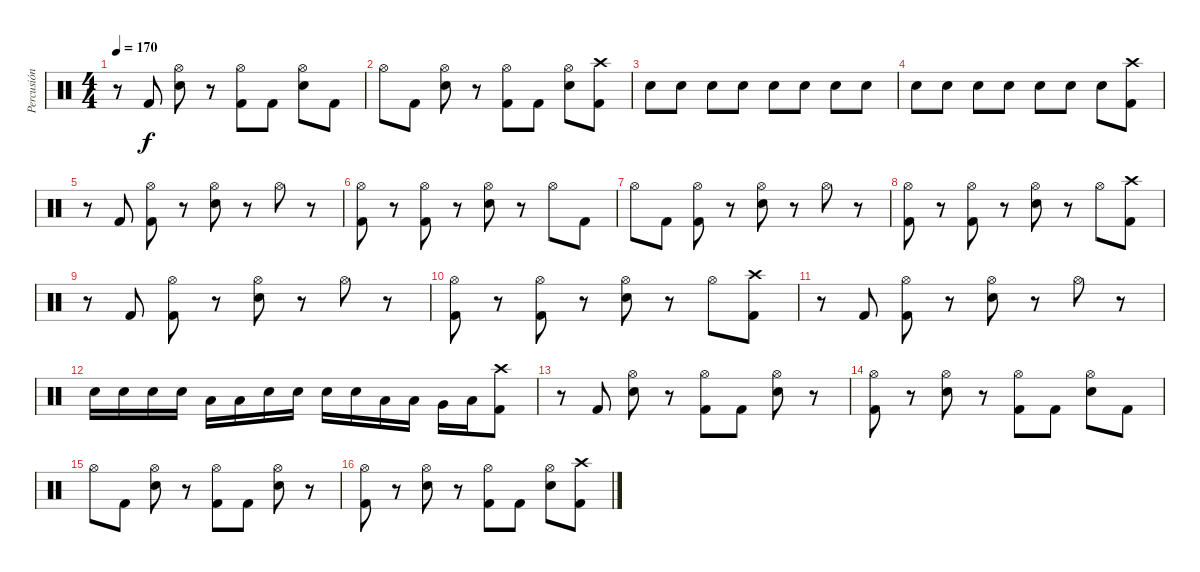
\track ("Percusión" "Percusión") {instrument percussion}
\staff {score}
\articulation defaults
\ts (4 4)
\tempo 170
\clef neutral
\ks c
r.8{dy f} "Kick (hit) 2".8 ("Snare (hit) 2" "Hi-Hat (open)").8 r.8 ("Kick (hit) 2" "Hi-Hat (open)").8 "Kick (hit) 2".8 ("Snare (hit) 2" "Hi-Hat (open)").8 "Kick (hit) 2".8 |
"Hi-Hat (open)".8 "Kick (hit) 2".8 ("Snare (hit) 2" "Hi-Hat (open)").8 r.8 ("Kick (hit) 2" "Hi-Hat (open)").8 "Kick (hit) 2".8 ("Snare (hit) 2" "Hi-Hat (open)").8 ("Kick (hit) 2" "Crash high (hit)").8 |
"Snare (hit) 2".8{volume 0} "Snare (hit) 2".8{volume 16} "Snare (hit) 2".8 "Snare (hit) 2".8 "Snare (hit) 2".8 "Snare (hit) 2".8 "Snare (hit) 2".8 "Snare (hit) 2".8 |
"Snare (hit) 2".8 "Snare (hit) 2".8 "Snare (hit) 2".8 "Snare (hit) 2".8 "Snare (hit) 2".8 "Snare (hit) 2".8 "Snare (hit) 2".8 ("Kick (hit) 2" "Crash high (hit)").8 |
r.8 "Kick (hit) 2".8 ("Kick (hit) 2" "Hi-Hat (open)").8 r.8 ("Snare (hit) 2" "Hi-Hat (open)").8 r.8 "Hi-Hat (open)".8 r.8 |
("Kick (hit) 2" "Hi-Hat (open)").8 r.8 ("Kick (hit) 2" "Hi-Hat (open)").8 r.8 ("Snare (hit) 2" "Hi-Hat (open)").8 r.8 "Hi-Hat (open)".8 "Kick (hit) 2".8 |
"Hi-Hat (open)".8 "Kick (hit) 2".8 ("Kick (hit) 2" "Hi-Hat (open)").8 r.8 ("Snare (hit) 2" "Hi-Hat (open)").8 r.8 "Hi-Hat (open)".8 r.8 |
("Kick (hit) 2" "Hi-Hat (open)").8 r.8 ("Kick (hit) 2" "Hi-Hat (open)").8 r.8 ("Snare (hit) 2" "Hi-Hat (open)").8 r.8 "Hi-Hat (open)".8 ("Kick (hit) 2" "Crash high (hit)").8 |
r.8 "Kick (hit) 2".8 ("Kick (hit) 2" "Hi-Hat (open)").8 r.8 ("Snare (hit) 2" "Hi-Hat (open)").8 r.8 "Hi-Hat (open)".8 r.8 |
("Kick (hit) 2" "Hi-Hat (open)").8 r.8 ("Kick (hit) 2" "Hi-Hat (open)").8 r.8 ("Snare (hit) 2" "Hi-Hat (open)").8 r.8 "Hi-Hat (open)".8 ("Kick (hit) 2" "Crash high (hit)").8 |
r.8 "Kick (hit) 2".8 ("Kick (hit) 2" "Hi-Hat (open)").8 r.8 ("Snare (hit) 2" "Hi-Hat (open)").8 r.8 "Hi-Hat (open)".8 r.8 |
"Snare (hit) 2".16 "Snare (hit) 2".16 "Snare (hit) 2".16 "Snare (hit) 2".16 "Low Tom (hit)".16 "Low Tom (hit)".16 "Snare (hit) 2".16 "Snare (hit) 2".16 "Snare (hit) 2".16 "Snare (hit) 2".16 "Low Tom (hit)".16 "Low Tom (hit)".16 "Very Low Tom (hit)".16 "Low Floor Tom (hit)".16 ("Kick (hit) 2" "Crash high (hit)").8 |
r.8 "Kick (hit) 2".8 ("Snare (hit) 2" "Hi-Hat (open)").8 r.8 ("Kick (hit) 2" "Hi-Hat (open)").8 "Kick (hit) 2".8 ("Snare (hit) 2" "Hi-Hat (open)").8 r.8 |
("Kick (hit) 2" "Hi-Hat (open)").8 r.8 ("Snare (hit) 2" "Hi-Hat (open)").8 r.8 ("Kick (hit) 2" "Hi-Hat (open)").8 "Kick (hit) 2".8 ("Snare (hit) 2" "Hi-Hat (open)").8 "Kick (hit) 2".8 |
"Hi-Hat (open)".8 "Kick (hit) 2".8 ("Snare (hit) 2" "Hi-Hat (open)").8 r.8 ("Kick (hit) 2" "Hi-Hat (open)").8 "Kick (hit) 2".8 ("Snare (hit) 2" "Hi-Hat (open)").8 r.8 |
("Kick (hit) 2" "Hi-Hat (open)").8 r.8 ("Snare (hit) 2" "Hi-Hat (open)").8 r.8 ("Kick (hit) 2" "Hi-Hat (open)").8 "Kick (hit) 2".8 ("Snare (hit) 2" "Hi-Hat (open)").8 ("Kick (hit) 2" "Crash high (hit)").8
